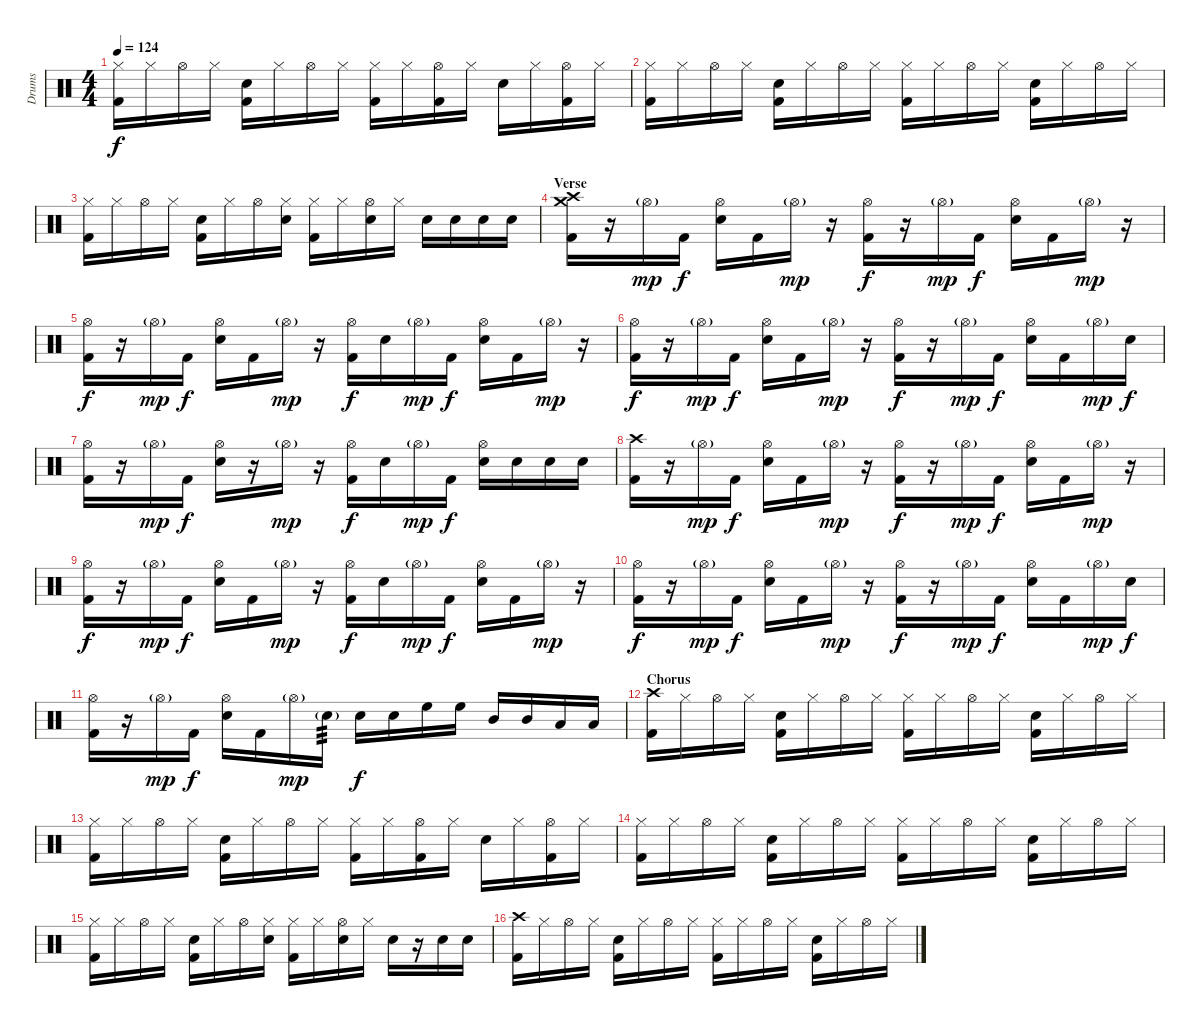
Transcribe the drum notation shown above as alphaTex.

\track ("Drums" "Drums") {instrument percussion}
\staff {score}
\articulation defaults
\ts (4 4)
\tempo 124
\clef neutral
\ks c
("Hi-Hat (closed)" "Kick (hit) 2").16{dy f} "Hi-Hat (closed)".16 "Hi-Hat (open)".16 "Hi-Hat (closed)".16 ("Electric Snare (hit)" "Kick (hit) 2").16 "Hi-Hat (closed)".16 "Hi-Hat (open)".16 "Hi-Hat (closed)".16 ("Hi-Hat (closed)" "Kick (hit) 2").16 "Hi-Hat (closed)".16 ("Hi-Hat (open)" "Kick (hit) 2").16 "Hi-Hat (closed)".16 "Electric Snare (hit)".16 "Hi-Hat (closed)".16 ("Hi-Hat (open)" "Kick (hit) 2").16 "Hi-Hat (closed)".16 |
("Hi-Hat (closed)" "Kick (hit) 2").16 "Hi-Hat (closed)".16 "Hi-Hat (open)".16 "Hi-Hat (closed)".16 ("Electric Snare (hit)" "Kick (hit) 2").16 "Hi-Hat (closed)".16 "Hi-Hat (open)".16 "Hi-Hat (closed)".16 ("Hi-Hat (closed)" "Kick (hit) 2").16 "Hi-Hat (closed)".16 "Hi-Hat (open)".16 "Hi-Hat (closed)".16 ("Electric Snare (hit)" "Kick (hit) 2").16 "Hi-Hat (closed)".16 "Hi-Hat (open)".16 "Hi-Hat (closed)".16 |
("Hi-Hat (closed)" "Kick (hit) 2").16 "Hi-Hat (closed)".16 "Hi-Hat (open)".16 "Hi-Hat (closed)".16 ("Electric Snare (hit)" "Kick (hit) 2").16 "Hi-Hat (closed)".16 "Hi-Hat (open)".16 ("Hi-Hat (closed)" "Electric Snare (hit)").16 ("Hi-Hat (closed)" "Kick (hit) 2").16 "Hi-Hat (closed)".16 ("Hi-Hat (open)" "Electric Snare (hit)").16 "Hi-Hat (closed)".16 "Electric Snare (hit)".16 "Electric Snare (hit)".16 "Electric Snare (hit)".16 "Electric Snare (hit)".16 |
\section ("" "Verse")
("Crash high (hit)" "Crash medium (hit)" "Kick (hit) 2").16 r.16 "Hi-Hat (open)"{g}.16{dy mp} "Kick (hit) 2".16{dy f} ("Hi-Hat (open)" "Electric Snare (hit)").16 "Kick (hit) 2".16 "Hi-Hat (open)"{g}.16{dy mp} r.16 ("Hi-Hat (open)" "Kick (hit) 2").16{dy f} r.16 "Hi-Hat (open)"{g}.16{dy mp} "Kick (hit) 2".16{dy f} ("Hi-Hat (open)" "Electric Snare (hit)").16 "Kick (hit) 2".16 "Hi-Hat (open)"{g}.16{dy mp} r.16 |
("Hi-Hat (open)" "Kick (hit) 2").16{dy f} r.16 "Hi-Hat (open)"{g}.16{dy mp} "Kick (hit) 2".16{dy f} ("Hi-Hat (open)" "Electric Snare (hit)").16 "Kick (hit) 2".16 "Hi-Hat (open)"{g}.16{dy mp} r.16 ("Hi-Hat (open)" "Kick (hit) 2").16{dy f} "Electric Snare (hit)".16 "Hi-Hat (open)"{g}.16{dy mp} "Kick (hit) 2".16{dy f} ("Hi-Hat (open)" "Electric Snare (hit)").16 "Kick (hit) 2".16 "Hi-Hat (open)"{g}.16{dy mp} r.16 |
("Hi-Hat (open)" "Kick (hit) 2").16{dy f} r.16 "Hi-Hat (open)"{g}.16{dy mp} "Kick (hit) 2".16{dy f} ("Hi-Hat (open)" "Electric Snare (hit)").16 "Kick (hit) 2".16 "Hi-Hat (open)"{g}.16{dy mp} r.16 ("Hi-Hat (open)" "Kick (hit) 2").16{dy f} r.16 "Hi-Hat (open)"{g}.16{dy mp} "Kick (hit) 2".16{dy f} ("Hi-Hat (open)" "Electric Snare (hit)").16 "Kick (hit) 2".16 "Hi-Hat (open)"{g}.16{dy mp} "Electric Snare (hit)".16{dy f} |
("Hi-Hat (open)" "Kick (hit) 2").16 r.16 "Hi-Hat (open)"{g}.16{dy mp} "Kick (hit) 2".16{dy f} ("Hi-Hat (open)" "Electric Snare (hit)").16 r.16 "Hi-Hat (open)"{g}.16{dy mp} r.16 ("Hi-Hat (open)" "Kick (hit) 2").16{dy f} "Electric Snare (hit)".16 "Hi-Hat (open)"{g}.16{dy mp} "Kick (hit) 2".16{dy f} ("Hi-Hat (open)" "Electric Snare (hit)").16 "Snare (hit)".16 "Electric Snare (hit)".16 "Electric Snare (hit)".16 |
("Crash high (hit)" "Kick (hit) 2").16 r.16 "Hi-Hat (open)"{g}.16{dy mp} "Kick (hit) 2".16{dy f} ("Hi-Hat (open)" "Electric Snare (hit)").16 "Kick (hit) 2".16 "Hi-Hat (open)"{g}.16{dy mp} r.16 ("Hi-Hat (open)" "Kick (hit) 2").16{dy f} r.16 "Hi-Hat (open)"{g}.16{dy mp} "Kick (hit) 2".16{dy f} ("Hi-Hat (open)" "Electric Snare (hit)").16 "Kick (hit) 2".16 "Hi-Hat (open)"{g}.16{dy mp} r.16 |
("Hi-Hat (open)" "Kick (hit) 2").16{dy f} r.16 "Hi-Hat (open)"{g}.16{dy mp} "Kick (hit) 2".16{dy f} ("Hi-Hat (open)" "Electric Snare (hit)").16 "Kick (hit) 2".16 "Hi-Hat (open)"{g}.16{dy mp} r.16 ("Hi-Hat (open)" "Kick (hit) 2").16{dy f} "Electric Snare (hit)".16 "Hi-Hat (open)"{g}.16{dy mp} "Kick (hit) 2".16{dy f} ("Hi-Hat (open)" "Electric Snare (hit)").16 "Kick (hit) 2".16 "Hi-Hat (open)"{g}.16{dy mp} r.16 |
("Hi-Hat (open)" "Kick (hit) 2").16{dy f} r.16 "Hi-Hat (open)"{g}.16{dy mp} "Kick (hit) 2".16{dy f} ("Hi-Hat (open)" "Electric Snare (hit)").16 "Kick (hit) 2".16 "Hi-Hat (open)"{g}.16{dy mp} r.16 ("Hi-Hat (open)" "Kick (hit) 2").16{dy f} r.16 "Hi-Hat (open)"{g}.16{dy mp} "Kick (hit) 2".16{dy f} ("Hi-Hat (open)" "Electric Snare (hit)").16 "Kick (hit) 2".16 "Hi-Hat (open)"{g}.16{dy mp} "Electric Snare (hit)".16{dy f} |
("Hi-Hat (open)" "Kick (hit) 2").16 r.16 "Hi-Hat (open)"{g}.16{dy mp} "Kick (hit) 2".16{dy f} ("Hi-Hat (open)" "Electric Snare (hit)").16 "Kick (hit) 2".16 "Hi-Hat (open)"{g}.16{dy mp} "Electric Snare (hit)"{g}.16{tp 3} "Electric Snare (hit)".16{dy f} "Electric Snare (hit)".16 "High Floor Tom (hit)".16 "High Floor Tom (hit)".16 "Mid Tom (hit)".16 "Mid Tom (hit)".16 "Low Tom (hit)".16 "Low Tom (hit)".16 |
\section ("" "Chorus")
("Crash high (hit)" "Kick (hit) 2").16 "Hi-Hat (closed)".16 "Hi-Hat (open)".16 "Hi-Hat (closed)".16 ("Electric Snare (hit)" "Kick (hit) 2").16 "Hi-Hat (closed)".16 "Hi-Hat (open)".16 "Hi-Hat (closed)".16 ("Hi-Hat (closed)" "Kick (hit) 2").16 "Hi-Hat (closed)".16 "Hi-Hat (open)".16 "Hi-Hat (closed)".16 ("Electric Snare (hit)" "Kick (hit) 2").16 "Hi-Hat (closed)".16 "Hi-Hat (open)".16 "Hi-Hat (closed)".16 |
("Hi-Hat (closed)" "Kick (hit) 2").16 "Hi-Hat (closed)".16 "Hi-Hat (open)".16 "Hi-Hat (closed)".16 ("Electric Snare (hit)" "Kick (hit) 2").16 "Hi-Hat (closed)".16 "Hi-Hat (open)".16 "Hi-Hat (closed)".16 ("Hi-Hat (closed)" "Kick (hit) 2").16 "Hi-Hat (closed)".16 ("Hi-Hat (open)" "Kick (hit) 2").16 "Hi-Hat (closed)".16 "Electric Snare (hit)".16 "Hi-Hat (closed)".16 ("Hi-Hat (open)" "Kick (hit) 2").16 "Hi-Hat (closed)".16 |
("Hi-Hat (closed)" "Kick (hit) 2").16 "Hi-Hat (closed)".16 "Hi-Hat (open)".16 "Hi-Hat (closed)".16 ("Electric Snare (hit)" "Kick (hit) 2").16 "Hi-Hat (closed)".16 "Hi-Hat (open)".16 "Hi-Hat (closed)".16 ("Hi-Hat (closed)" "Kick (hit) 2").16 "Hi-Hat (closed)".16 "Hi-Hat (open)".16 "Hi-Hat (closed)".16 ("Electric Snare (hit)" "Kick (hit) 2").16 "Hi-Hat (closed)".16 "Hi-Hat (open)".16 "Hi-Hat (closed)".16 |
("Hi-Hat (closed)" "Kick (hit) 2").16 "Hi-Hat (closed)".16 "Hi-Hat (open)".16 "Hi-Hat (closed)".16 ("Electric Snare (hit)" "Kick (hit) 2").16 "Hi-Hat (closed)".16 "Hi-Hat (open)".16 ("Hi-Hat (closed)" "Electric Snare (hit)").16 ("Hi-Hat (closed)" "Kick (hit) 2").16 "Hi-Hat (closed)".16 ("Hi-Hat (open)" "Electric Snare (hit)").16 "Hi-Hat (closed)".16 "Electric Snare (hit)".16 r.16 "Electric Snare (hit)".16 "Electric Snare (hit)".16 |
("Crash high (hit)" "Kick (hit) 2").16 "Hi-Hat (closed)".16 "Hi-Hat (open)".16 "Hi-Hat (closed)".16 ("Electric Snare (hit)" "Kick (hit) 2").16 "Hi-Hat (closed)".16 "Hi-Hat (open)".16 "Hi-Hat (closed)".16 ("Hi-Hat (closed)" "Kick (hit) 2").16 "Hi-Hat (closed)".16 "Hi-Hat (open)".16 "Hi-Hat (closed)".16 ("Electric Snare (hit)" "Kick (hit) 2").16 "Hi-Hat (closed)".16 "Hi-Hat (open)".16 "Hi-Hat (closed)".16
